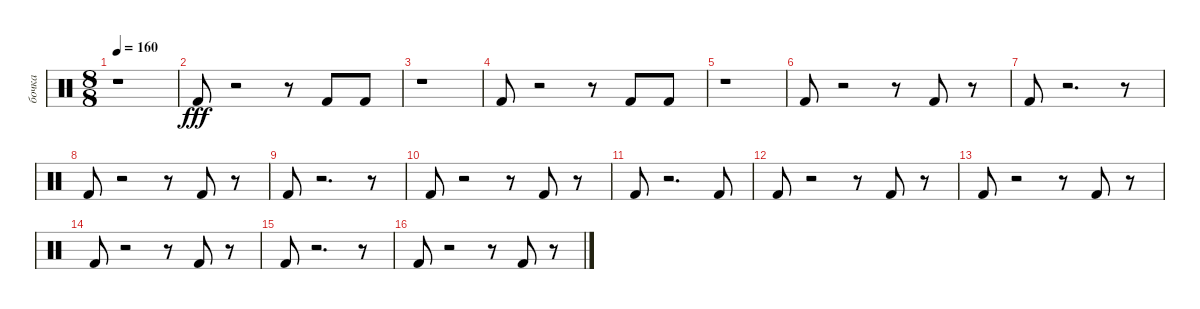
\track ("бочка" "бочка") {instrument percussion}
\staff {score}
\articulation defaults
\ts (8 8)
\tempo 160
\clef neutral
\ks c
r.1{dy fff} |
"Kick (hit) 2".8 r.2 r.8 "Kick (hit) 2".8 "Kick (hit) 2".8 |
r.1 |
"Kick (hit) 2".8 r.2 r.8 "Kick (hit) 2".8 "Kick (hit) 2".8 |
r.1 |
"Kick (hit) 2".8 r.2 r.8 "Kick (hit) 2".8 r.8 |
"Kick (hit) 2".8 r.2{d} r.8 |
"Kick (hit) 2".8 r.2 r.8 "Kick (hit) 2".8 r.8 |
"Kick (hit) 2".8 r.2{d} r.8 |
"Kick (hit) 2".8 r.2 r.8 "Kick (hit) 2".8 r.8 |
"Kick (hit) 2".8 r.2{d} "Kick (hit) 2".8 |
"Kick (hit) 2".8 r.2 r.8 "Kick (hit) 2".8 r.8 |
"Kick (hit) 2".8 r.2 r.8 "Kick (hit) 2".8 r.8 |
"Kick (hit) 2".8 r.2 r.8 "Kick (hit) 2".8 r.8 |
"Kick (hit) 2".8 r.2{d} r.8 |
"Kick (hit) 2".8 r.2 r.8 "Kick (hit) 2".8 r.8
